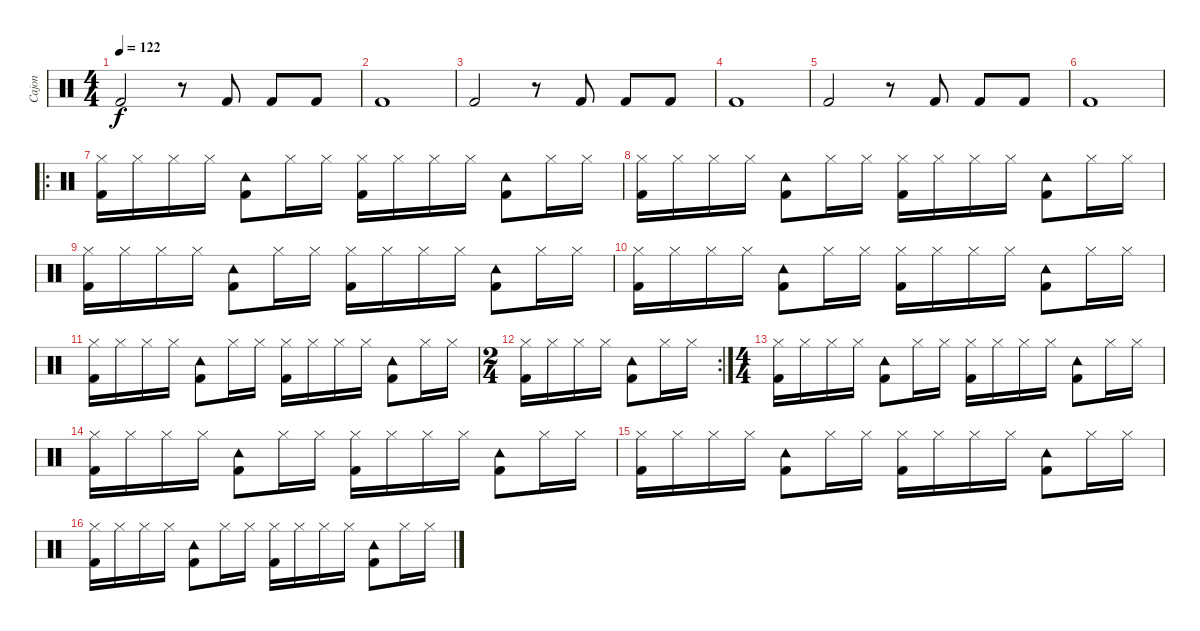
\track ("Cajon" "Cajon") {instrument percussion}
\staff {score}
\articulation defaults
\ts (4 4)
\tempo 122
\clef neutral
\ks c "Kick (hit) 2".2{dy f}
r.8 "Kick (hit) 2".8 "Kick (hit) 2".8 "Kick (hit) 2".8 |
"Kick (hit) 2".1 |
"Kick (hit) 2".2 r.8 "Kick (hit) 2".8 "Kick (hit) 2".8 "Kick (hit) 2".8 |
"Kick (hit) 2".1 |
"Kick (hit) 2".2 r.8 "Kick (hit) 2".8 "Kick (hit) 2".8 "Kick (hit) 2".8 |
"Kick (hit) 2".1 |
\ro
("Hi-Hat (closed)" "Kick (hit) 2").16 "Hi-Hat (closed)".16 "Hi-Hat (closed)".16 "Hi-Hat (closed)".16 ("Tambourine (hit)" "Kick (hit) 2").8 "Hi-Hat (closed)".16 "Hi-Hat (closed)".16 ("Hi-Hat (closed)" "Kick (hit) 2").16 "Hi-Hat (closed)".16 "Hi-Hat (closed)".16 "Hi-Hat (closed)".16 ("Tambourine (hit)" "Kick (hit) 2").8 "Hi-Hat (closed)".16 "Hi-Hat (closed)".16 |
("Hi-Hat (closed)" "Kick (hit) 2").16 "Hi-Hat (closed)".16 "Hi-Hat (closed)".16 "Hi-Hat (closed)".16 ("Tambourine (hit)" "Kick (hit) 2").8 "Hi-Hat (closed)".16 "Hi-Hat (closed)".16 ("Hi-Hat (closed)" "Kick (hit) 2").16 "Hi-Hat (closed)".16 "Hi-Hat (closed)".16 "Hi-Hat (closed)".16 ("Tambourine (hit)" "Kick (hit) 2").8 "Hi-Hat (closed)".16 "Hi-Hat (closed)".16 |
("Hi-Hat (closed)" "Kick (hit) 2").16 "Hi-Hat (closed)".16 "Hi-Hat (closed)".16 "Hi-Hat (closed)".16 ("Tambourine (hit)" "Kick (hit) 2").8 "Hi-Hat (closed)".16 "Hi-Hat (closed)".16 ("Hi-Hat (closed)" "Kick (hit) 2").16 "Hi-Hat (closed)".16 "Hi-Hat (closed)".16 "Hi-Hat (closed)".16 ("Tambourine (hit)" "Kick (hit) 2").8 "Hi-Hat (closed)".16 "Hi-Hat (closed)".16 |
("Hi-Hat (closed)" "Kick (hit) 2").16 "Hi-Hat (closed)".16 "Hi-Hat (closed)".16 "Hi-Hat (closed)".16 ("Tambourine (hit)" "Kick (hit) 2").8 "Hi-Hat (closed)".16 "Hi-Hat (closed)".16 ("Hi-Hat (closed)" "Kick (hit) 2").16 "Hi-Hat (closed)".16 "Hi-Hat (closed)".16 "Hi-Hat (closed)".16 ("Tambourine (hit)" "Kick (hit) 2").8 "Hi-Hat (closed)".16 "Hi-Hat (closed)".16 |
("Hi-Hat (closed)" "Kick (hit) 2").16 "Hi-Hat (closed)".16 "Hi-Hat (closed)".16 "Hi-Hat (closed)".16 ("Tambourine (hit)" "Kick (hit) 2").8 "Hi-Hat (closed)".16 "Hi-Hat (closed)".16 ("Hi-Hat (closed)" "Kick (hit) 2").16 "Hi-Hat (closed)".16 "Hi-Hat (closed)".16 "Hi-Hat (closed)".16 ("Tambourine (hit)" "Kick (hit) 2").8 "Hi-Hat (closed)".16 "Hi-Hat (closed)".16 |
\rc 2
\ts (2 4)
("Hi-Hat (closed)" "Kick (hit) 2").16 "Hi-Hat (closed)".16 "Hi-Hat (closed)".16 "Hi-Hat (closed)".16 ("Tambourine (hit)" "Kick (hit) 2").8 "Hi-Hat (closed)".16 "Hi-Hat (closed)".16 |
\ts (4 4)
("Hi-Hat (closed)" "Kick (hit) 2").16 "Hi-Hat (closed)".16 "Hi-Hat (closed)".16 "Hi-Hat (closed)".16 ("Tambourine (hit)" "Kick (hit) 2").8 "Hi-Hat (closed)".16 "Hi-Hat (closed)".16 ("Hi-Hat (closed)" "Kick (hit) 2").16 "Hi-Hat (closed)".16 "Hi-Hat (closed)".16 "Hi-Hat (closed)".16 ("Tambourine (hit)" "Kick (hit) 2").8 "Hi-Hat (closed)".16 "Hi-Hat (closed)".16 |
("Hi-Hat (closed)" "Kick (hit) 2").16 "Hi-Hat (closed)".16 "Hi-Hat (closed)".16 "Hi-Hat (closed)".16 ("Tambourine (hit)" "Kick (hit) 2").8 "Hi-Hat (closed)".16 "Hi-Hat (closed)".16 ("Hi-Hat (closed)" "Kick (hit) 2").16 "Hi-Hat (closed)".16 "Hi-Hat (closed)".16 "Hi-Hat (closed)".16 ("Tambourine (hit)" "Kick (hit) 2").8 "Hi-Hat (closed)".16 "Hi-Hat (closed)".16 |
("Hi-Hat (closed)" "Kick (hit) 2").16 "Hi-Hat (closed)".16 "Hi-Hat (closed)".16 "Hi-Hat (closed)".16 ("Tambourine (hit)" "Kick (hit) 2").8 "Hi-Hat (closed)".16 "Hi-Hat (closed)".16 ("Hi-Hat (closed)" "Kick (hit) 2").16 "Hi-Hat (closed)".16 "Hi-Hat (closed)".16 "Hi-Hat (closed)".16 ("Tambourine (hit)" "Kick (hit) 2").8 "Hi-Hat (closed)".16 "Hi-Hat (closed)".16 |
("Hi-Hat (closed)" "Kick (hit) 2").16 "Hi-Hat (closed)".16 "Hi-Hat (closed)".16 "Hi-Hat (closed)".16 ("Tambourine (hit)" "Kick (hit) 2").8 "Hi-Hat (closed)".16 "Hi-Hat (closed)".16 ("Hi-Hat (closed)" "Kick (hit) 2").16 "Hi-Hat (closed)".16 "Hi-Hat (closed)".16 "Hi-Hat (closed)".16 ("Tambourine (hit)" "Kick (hit) 2").8 "Hi-Hat (closed)".16 "Hi-Hat (closed)".16
